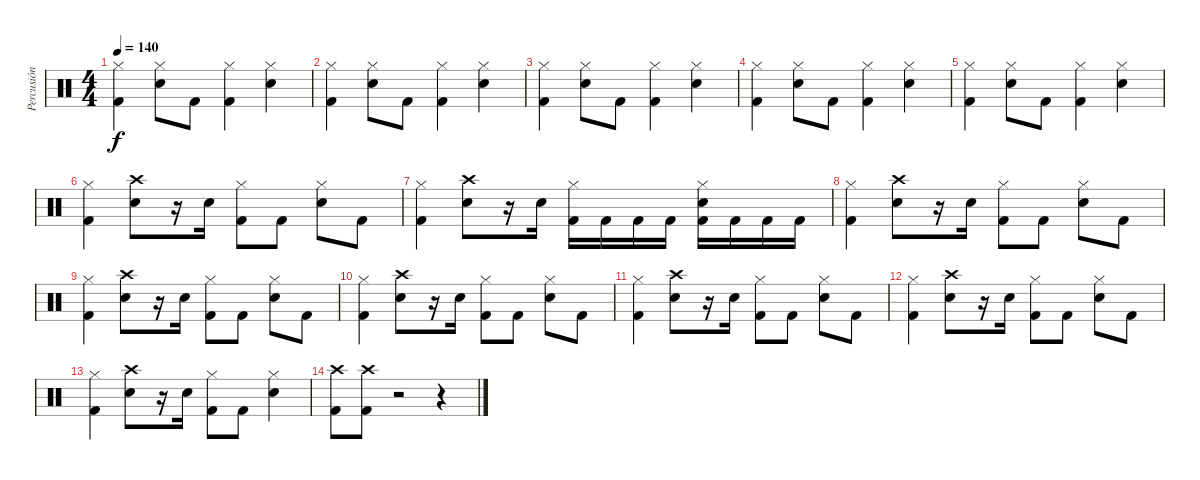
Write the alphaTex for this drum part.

\track ("Percusión" "Percusión") {instrument percussion}
\staff {score}
\articulation defaults
\ts (4 4)
\tempo 140
\clef neutral
\ks c
("Hi-Hat (closed)" "Kick (hit) 2").4{dy f} ("Hi-Hat (closed)" "Snare (hit) 2").8 "Kick (hit) 2".8 ("Hi-Hat (closed)" "Kick (hit) 2").4 ("Hi-Hat (closed)" "Snare (hit) 2").4 |
("Hi-Hat (closed)" "Kick (hit) 2").4 ("Hi-Hat (closed)" "Snare (hit) 2").8 "Kick (hit) 2".8 ("Hi-Hat (closed)" "Kick (hit) 2").4 ("Hi-Hat (closed)" "Snare (hit) 2").4 |
("Hi-Hat (closed)" "Kick (hit) 2").4 ("Hi-Hat (closed)" "Snare (hit) 2").8 "Kick (hit) 2".8 ("Hi-Hat (closed)" "Kick (hit) 2").4 ("Hi-Hat (closed)" "Snare (hit) 2").4 |
("Hi-Hat (closed)" "Kick (hit) 2").4 ("Hi-Hat (closed)" "Snare (hit) 2").8 "Kick (hit) 2".8 ("Hi-Hat (closed)" "Kick (hit) 2").4 ("Hi-Hat (closed)" "Snare (hit) 2").4 |
("Hi-Hat (closed)" "Kick (hit) 2").4 ("Hi-Hat (closed)" "Snare (hit) 2").8 "Kick (hit) 2".8 ("Hi-Hat (closed)" "Kick (hit) 2").4 ("Hi-Hat (closed)" "Snare (hit) 2").4 |
("Hi-Hat (closed)" "Kick (hit) 2").4 ("Crash high (hit)" "Snare (hit) 2").8 r.16 "Snare (hit) 2".16 ("Hi-Hat (closed)" "Kick (hit) 2").8 "Kick (hit) 2".8 ("Hi-Hat (closed)" "Snare (hit) 2").8 "Kick (hit) 2".8 |
("Hi-Hat (closed)" "Kick (hit) 2").4 ("Crash high (hit)" "Snare (hit) 2").8 r.16 "Snare (hit) 2".16 ("Hi-Hat (closed)" "Kick (hit) 2").16 "Kick (hit) 2".16 "Kick (hit) 2".16 "Kick (hit) 2".16 ("Hi-Hat (closed)" "Snare (hit) 2" "Kick (hit) 2").16 "Kick (hit) 2".16 "Kick (hit) 2".16 "Kick (hit) 2".16 |
("Hi-Hat (closed)" "Kick (hit) 2").4 ("Crash high (hit)" "Snare (hit) 2").8 r.16 "Snare (hit) 2".16 ("Hi-Hat (closed)" "Kick (hit) 2").8 "Kick (hit) 2".8 ("Hi-Hat (closed)" "Snare (hit) 2").8 "Kick (hit) 2".8 |
("Hi-Hat (closed)" "Kick (hit) 2").4 ("Crash high (hit)" "Snare (hit) 2").8 r.16 "Snare (hit) 2".16 ("Hi-Hat (closed)" "Kick (hit) 2").8 "Kick (hit) 2".8 ("Hi-Hat (closed)" "Snare (hit) 2").8 "Kick (hit) 2".8 |
("Hi-Hat (closed)" "Kick (hit) 2").4 ("Crash high (hit)" "Snare (hit) 2").8 r.16 "Snare (hit) 2".16 ("Hi-Hat (closed)" "Kick (hit) 2").8 "Kick (hit) 2".8 ("Hi-Hat (closed)" "Snare (hit) 2").8 "Kick (hit) 2".8 |
("Hi-Hat (closed)" "Kick (hit) 2").4 ("Crash high (hit)" "Snare (hit) 2").8 r.16 "Snare (hit) 2".16 ("Hi-Hat (closed)" "Kick (hit) 2").8 "Kick (hit) 2".8 ("Hi-Hat (closed)" "Snare (hit) 2").8 "Kick (hit) 2".8 |
("Hi-Hat (closed)" "Kick (hit) 2").4 ("Crash high (hit)" "Snare (hit) 2").8 r.16 "Snare (hit) 2".16 ("Hi-Hat (closed)" "Kick (hit) 2").8 "Kick (hit) 2".8 ("Hi-Hat (closed)" "Snare (hit) 2").8 "Kick (hit) 2".8 |
("Hi-Hat (closed)" "Kick (hit) 2").4 ("Crash high (hit)" "Snare (hit) 2").8 r.16 "Snare (hit) 2".16 ("Hi-Hat (closed)" "Kick (hit) 2").8 "Kick (hit) 2".8 ("Hi-Hat (closed)" "Snare (hit) 2").4 |
("Crash high (hit)" "Kick (hit) 2").8 ("Crash high (hit)" "Kick (hit) 2").8 r.2 r.4
